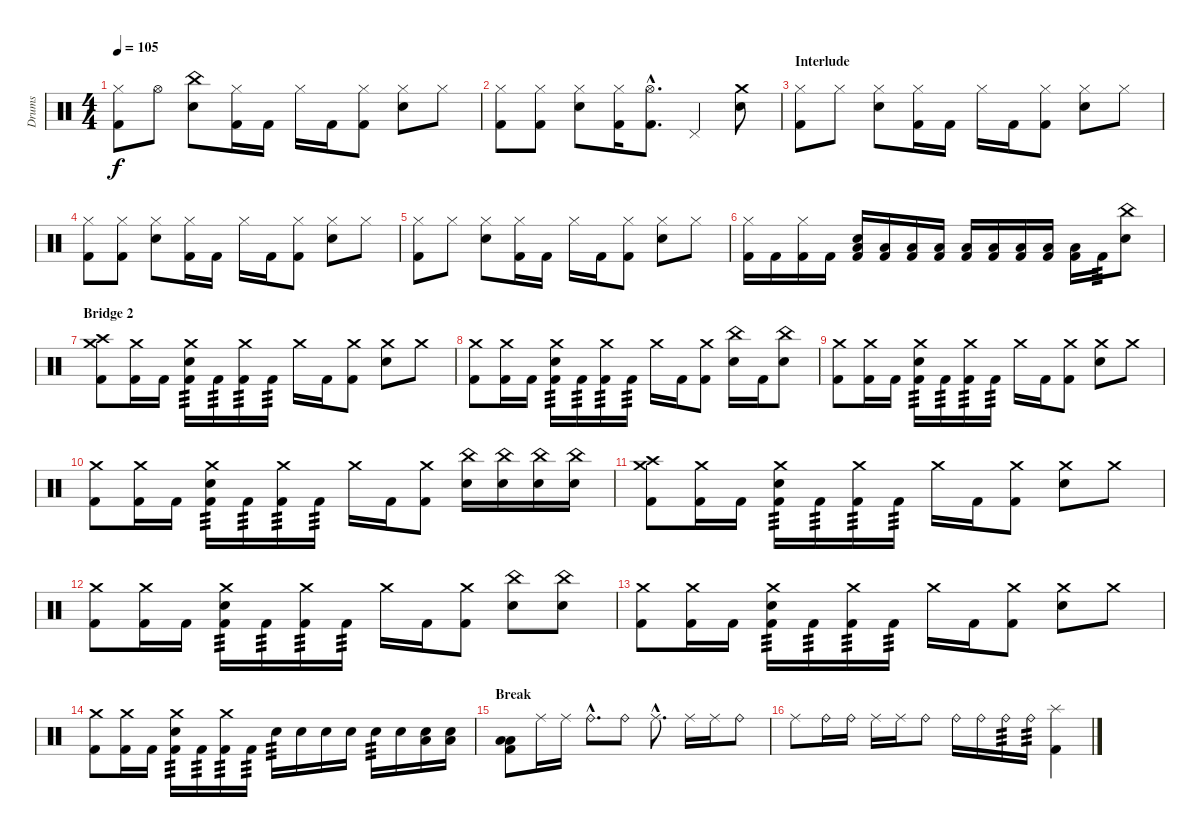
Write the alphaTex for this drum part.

\track ("Drums" "Drums") {instrument percussion}
\staff {score}
\articulation defaults
\ts (4 4)
\tempo 105
\clef neutral
\ks c
("Hi-Hat (closed)" "Kick (hit) 2").8{dy f} "Hi-Hat (open)".8 ("China (hit)" "Snare (hit) 2").8 ("Hi-Hat (closed)" "Kick (hit) 2").16 "Kick (hit) 2".16 "Hi-Hat (closed)".16 "Kick (hit) 2".16 ("Hi-Hat (closed)" "Kick (hit) 2").8 ("Hi-Hat (closed)" "Snare (hit) 2").8 "Hi-Hat (closed)".8 |
("Hi-Hat (closed)" "Kick (hit) 2").8 ("Hi-Hat (closed)" "Kick (hit) 2").8 ("Hi-Hat (closed)" "Snare (hit) 2").8 ("Hi-Hat (closed)" "Kick (hit) 2").16 ("Hi-Hat (open)"{hac} "Kick (hit) 2"{hac}).8{d} "Pedal Hi-Hat (hit)".4 ("Crash medium (hit)" "Snare (hit) 2").8 |
\section ("" "Interlude")
("Hi-Hat (closed)" "Kick (hit) 2").8 "Hi-Hat (closed)".8 ("Hi-Hat (closed)" "Snare (hit) 2").8 ("Hi-Hat (closed)" "Kick (hit) 2").16 "Kick (hit) 2".16 "Hi-Hat (closed)".16 "Kick (hit) 2".16 ("Hi-Hat (closed)" "Kick (hit) 2").8 ("Hi-Hat (closed)" "Snare (hit) 2").8 "Hi-Hat (closed)".8 |
("Hi-Hat (closed)" "Kick (hit) 2").8 ("Hi-Hat (closed)" "Kick (hit) 2").8 ("Hi-Hat (closed)" "Snare (hit) 2").8 ("Hi-Hat (closed)" "Kick (hit) 2").16 "Kick (hit) 2".16 "Hi-Hat (closed)".16 "Kick (hit) 2".16 ("Hi-Hat (closed)" "Kick (hit) 2").8 ("Hi-Hat (closed)" "Snare (hit) 2").8 "Hi-Hat (closed)".8 |
("Hi-Hat (closed)" "Kick (hit) 2").8 "Hi-Hat (closed)".8 ("Hi-Hat (closed)" "Snare (hit) 2").8 ("Hi-Hat (closed)" "Kick (hit) 2").16 "Kick (hit) 2".16 "Hi-Hat (closed)".16 "Kick (hit) 2".16 ("Hi-Hat (closed)" "Kick (hit) 2").8 ("Hi-Hat (closed)" "Snare (hit) 2").8 "Hi-Hat (closed)".8 |
("Hi-Hat (closed)" "Kick (hit) 2").16 "Kick (hit) 2".16 ("Hi-Hat (closed)" "Kick (hit) 2").16 "Kick (hit) 2".16 ("Snare (hit) 2" "Low Floor Tom (hit)" "Kick (hit) 2").16 ("Low Floor Tom (hit)" "Kick (hit) 2").16 ("Low Floor Tom (hit)" "Kick (hit) 2").16 ("Low Floor Tom (hit)" "Kick (hit) 2").16 ("Low Floor Tom (hit)" "Kick (hit) 2").16 ("Low Floor Tom (hit)" "Kick (hit) 2").16 ("Low Floor Tom (hit)" "Kick (hit) 2").16 ("Low Floor Tom (hit)" "Kick (hit) 2").16 ("Low Floor Tom (hit)" "Kick (hit) 2").16 "Kick (hit) 2".16{tp 3} ("China (hit)" "Snare (hit) 2").8 |
\section ("" "Bridge 2")
("Crash medium (hit)" "Crash high (hit)" "Kick (hit) 2").8 ("Crash medium (hit)" "Kick (hit) 2").16 "Kick (hit) 2".16 ("Crash medium (hit)" "Snare (hit) 2" "Kick (hit) 2").16{tp 3} "Kick (hit) 2".16{tp 3} ("Crash medium (hit)" "Kick (hit) 2").16{tp 3} "Kick (hit) 2".16{tp 3} "Crash medium (hit)".16 "Kick (hit) 2".16 ("Crash medium (hit)" "Kick (hit) 2").8 ("Crash medium (hit)" "Snare (hit) 2").8 "Crash medium (hit)".8 |
("Crash medium (hit)" "Kick (hit) 2").8 ("Crash medium (hit)" "Kick (hit) 2").16 "Kick (hit) 2".16 ("Crash medium (hit)" "Snare (hit) 2" "Kick (hit) 2").16{tp 3} "Kick (hit) 2".16{tp 3} ("Crash medium (hit)" "Kick (hit) 2").16{tp 3} "Kick (hit) 2".16{tp 3} "Crash medium (hit)".16 "Kick (hit) 2".16 ("Crash medium (hit)" "Kick (hit) 2").8 ("China (hit)" "Snare (hit) 2").16 "Kick (hit) 2".16 ("China (hit)" "Snare (hit) 2").8 |
("Crash medium (hit)" "Kick (hit) 2").8 ("Crash medium (hit)" "Kick (hit) 2").16 "Kick (hit) 2".16 ("Crash medium (hit)" "Snare (hit) 2" "Kick (hit) 2").16{tp 3} "Kick (hit) 2".16{tp 3} ("Crash medium (hit)" "Kick (hit) 2").16{tp 3} "Kick (hit) 2".16{tp 3} "Crash medium (hit)".16 "Kick (hit) 2".16 ("Crash medium (hit)" "Kick (hit) 2").8 ("Crash medium (hit)" "Snare (hit) 2").8 "Crash medium (hit)".8 |
("Crash medium (hit)" "Kick (hit) 2").8 ("Crash medium (hit)" "Kick (hit) 2").16 "Kick (hit) 2".16 ("Crash medium (hit)" "Snare (hit) 2" "Kick (hit) 2").16{tp 3} "Kick (hit) 2".16{tp 3} ("Crash medium (hit)" "Kick (hit) 2").16{tp 3} "Kick (hit) 2".16{tp 3} "Crash medium (hit)".16 "Kick (hit) 2".16 ("Crash medium (hit)" "Kick (hit) 2").8 ("China (hit)" "Snare (hit) 2").16 ("China (hit)" "Snare (hit) 2").16 ("China (hit)" "Snare (hit) 2").16 ("China (hit)" "Snare (hit) 2").16 |
("Crash medium (hit)" "Crash high (hit)" "Kick (hit) 2").8 ("Crash medium (hit)" "Kick (hit) 2").16 "Kick (hit) 2".16 ("Crash medium (hit)" "Snare (hit) 2" "Kick (hit) 2").16{tp 3} "Kick (hit) 2".16{tp 3} ("Crash medium (hit)" "Kick (hit) 2").16{tp 3} "Kick (hit) 2".16{tp 3} "Crash medium (hit)".16 "Kick (hit) 2".16 ("Crash medium (hit)" "Kick (hit) 2").8 ("Crash medium (hit)" "Snare (hit) 2").8 "Crash medium (hit)".8 |
("Crash medium (hit)" "Kick (hit) 2").8 ("Crash medium (hit)" "Kick (hit) 2").16 "Kick (hit) 2".16 ("Crash medium (hit)" "Snare (hit) 2" "Kick (hit) 2").16{tp 3} "Kick (hit) 2".16{tp 3} ("Crash medium (hit)" "Kick (hit) 2").16{tp 3} "Kick (hit) 2".16{tp 3} "Crash medium (hit)".16 "Kick (hit) 2".16 ("Crash medium (hit)" "Kick (hit) 2").8 ("China (hit)" "Snare (hit) 2").8 ("China (hit)" "Snare (hit) 2").8 |
("Crash medium (hit)" "Kick (hit) 2").8 ("Crash medium (hit)" "Kick (hit) 2").16 "Kick (hit) 2".16 ("Crash medium (hit)" "Snare (hit) 2" "Kick (hit) 2").16{tp 3} "Kick (hit) 2".16{tp 3} ("Crash medium (hit)" "Kick (hit) 2").16{tp 3} "Kick (hit) 2".16{tp 3} "Crash medium (hit)".16 "Kick (hit) 2".16 ("Crash medium (hit)" "Kick (hit) 2").8 ("Crash medium (hit)" "Snare (hit) 2").8 "Crash medium (hit)".8 |
("Crash medium (hit)" "Kick (hit) 2").8 ("Crash medium (hit)" "Kick (hit) 2").16 "Kick (hit) 2".16 ("Crash medium (hit)" "Snare (hit) 2" "Kick (hit) 2").16{tp 3} "Kick (hit) 2".16{tp 3} ("Crash medium (hit)" "Kick (hit) 2").16{tp 3} "Kick (hit) 2".16{tp 3} "Snare (hit) 2".16{tp 3} "Snare (hit) 2".16 "Snare (hit) 2".16 "Snare (hit) 2".16 "Snare (hit) 2".16{tp 3} "Snare (hit) 2".16 ("Snare (hit) 2" "Low Tom (hit)").16 ("Snare (hit) 2" "Low Tom (hit)").16 |
\section ("" "Break")
("Low Tom (hit)" "Low Floor Tom (hit)" "Kick (hit) 2").8 "Ride (middle)".16 "Ride (middle)".16 "Ride (bell)"{hac}.8{d} "Ride (bell)".8 "Ride (middle)"{hac}.8{d} "Ride (middle)".16 "Ride (middle)".16 "Ride (bell)".8 |
"Ride (middle)".8 "Ride (bell)".16 "Ride (bell)".16 "Ride (middle)".16 "Ride (middle)".16 "Ride (bell)".8 "Ride (bell)".16 "Ride (bell)".16 "Ride (bell)".16{tp 3} "Ride (bell)".16{tp 3} ("Splash (hit)" "Kick (hit) 2").4
